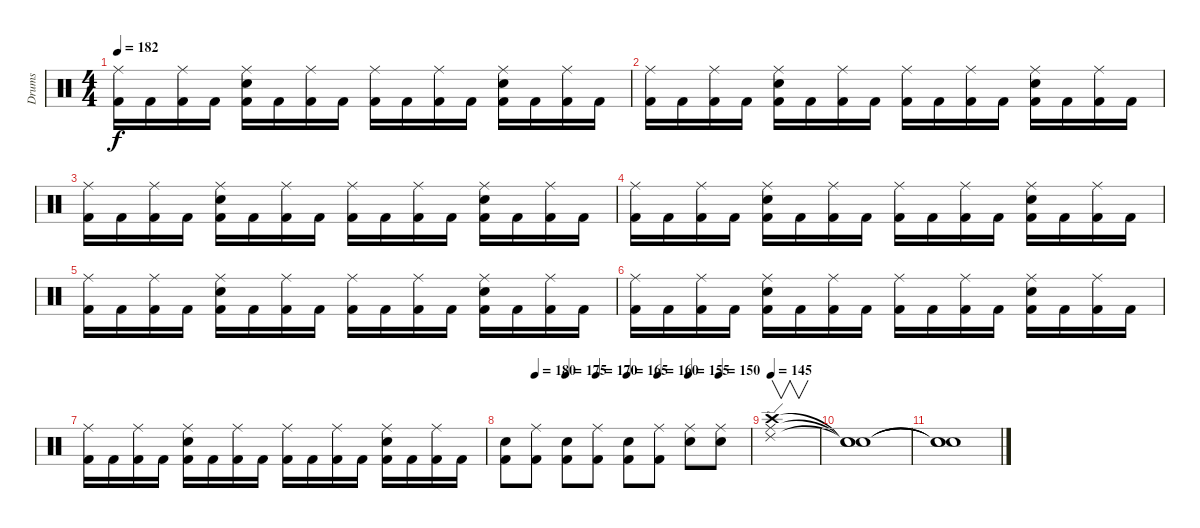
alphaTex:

\track ("Drums" "Drums") {instrument percussion}
\staff {score}
\articulation defaults
\ts (4 4)
\tempo 182
\clef neutral
\ks c
("Kick (hit) 2" "Ride (middle)").16{dy f} "Kick (hit) 2".16 ("Kick (hit) 2" "Ride (middle)").16 "Kick (hit) 2".16 ("Kick (hit) 2" "Snare (hit) 2" "Ride (middle)").16 "Kick (hit) 2".16 ("Kick (hit) 2" "Ride (middle)").16 "Kick (hit) 2".16 ("Kick (hit) 2" "Ride (middle)").16 "Kick (hit) 2".16 ("Kick (hit) 2" "Ride (middle)").16 "Kick (hit) 2".16 ("Kick (hit) 2" "Snare (hit) 2" "Ride (middle)").16 "Kick (hit) 2".16 ("Kick (hit) 2" "Ride (middle)").16 "Kick (hit) 2".16 |
("Kick (hit) 2" "Ride (middle)").16 "Kick (hit) 2".16 ("Kick (hit) 2" "Ride (middle)").16 "Kick (hit) 2".16 ("Kick (hit) 2" "Snare (hit) 2" "Ride (middle)").16 "Kick (hit) 2".16 ("Kick (hit) 2" "Ride (middle)").16 "Kick (hit) 2".16 ("Kick (hit) 2" "Ride (middle)").16 "Kick (hit) 2".16 ("Kick (hit) 2" "Ride (middle)").16 "Kick (hit) 2".16 ("Kick (hit) 2" "Snare (hit) 2" "Ride (middle)").16 "Kick (hit) 2".16 ("Kick (hit) 2" "Ride (middle)").16 "Kick (hit) 2".16 |
("Kick (hit) 2" "Ride (middle)").16 "Kick (hit) 2".16 ("Kick (hit) 2" "Ride (middle)").16 "Kick (hit) 2".16 ("Kick (hit) 2" "Snare (hit) 2" "Ride (middle)").16 "Kick (hit) 2".16 ("Kick (hit) 2" "Ride (middle)").16 "Kick (hit) 2".16 ("Kick (hit) 2" "Ride (middle)").16 "Kick (hit) 2".16 ("Kick (hit) 2" "Ride (middle)").16 "Kick (hit) 2".16 ("Kick (hit) 2" "Snare (hit) 2" "Ride (middle)").16 "Kick (hit) 2".16 ("Kick (hit) 2" "Ride (middle)").16 "Kick (hit) 2".16 |
("Kick (hit) 2" "Ride (middle)").16 "Kick (hit) 2".16 ("Kick (hit) 2" "Ride (middle)").16 "Kick (hit) 2".16 ("Kick (hit) 2" "Snare (hit) 2" "Ride (middle)").16 "Kick (hit) 2".16 ("Kick (hit) 2" "Ride (middle)").16 "Kick (hit) 2".16 ("Kick (hit) 2" "Ride (middle)").16 "Kick (hit) 2".16 ("Kick (hit) 2" "Ride (middle)").16 "Kick (hit) 2".16 ("Kick (hit) 2" "Snare (hit) 2" "Ride (middle)").16 "Kick (hit) 2".16 ("Kick (hit) 2" "Ride (middle)").16 "Kick (hit) 2".16 |
("Kick (hit) 2" "Ride (middle)").16 "Kick (hit) 2".16 ("Kick (hit) 2" "Ride (middle)").16 "Kick (hit) 2".16 ("Kick (hit) 2" "Snare (hit) 2" "Ride (middle)").16 "Kick (hit) 2".16 ("Kick (hit) 2" "Ride (middle)").16 "Kick (hit) 2".16 ("Kick (hit) 2" "Ride (middle)").16 "Kick (hit) 2".16 ("Kick (hit) 2" "Ride (middle)").16 "Kick (hit) 2".16 ("Kick (hit) 2" "Snare (hit) 2" "Ride (middle)").16 "Kick (hit) 2".16 ("Kick (hit) 2" "Ride (middle)").16 "Kick (hit) 2".16 |
("Kick (hit) 2" "Ride (middle)").16 "Kick (hit) 2".16 ("Kick (hit) 2" "Ride (middle)").16 "Kick (hit) 2".16 ("Kick (hit) 2" "Snare (hit) 2" "Ride (middle)").16 "Kick (hit) 2".16 ("Kick (hit) 2" "Ride (middle)").16 "Kick (hit) 2".16 ("Kick (hit) 2" "Ride (middle)").16 "Kick (hit) 2".16 ("Kick (hit) 2" "Ride (middle)").16 "Kick (hit) 2".16 ("Kick (hit) 2" "Snare (hit) 2" "Ride (middle)").16 "Kick (hit) 2".16 ("Kick (hit) 2" "Ride (middle)").16 "Kick (hit) 2".16 |
("Kick (hit) 2" "Ride (middle)").16 "Kick (hit) 2".16 ("Kick (hit) 2" "Ride (middle)").16 "Kick (hit) 2".16 ("Kick (hit) 2" "Snare (hit) 2" "Ride (middle)").16 "Kick (hit) 2".16 ("Kick (hit) 2" "Ride (middle)").16 "Kick (hit) 2".16 ("Kick (hit) 2" "Ride (middle)").16 "Kick (hit) 2".16 ("Kick (hit) 2" "Ride (middle)").16 "Kick (hit) 2".16 ("Kick (hit) 2" "Snare (hit) 2" "Ride (middle)").16 "Kick (hit) 2".16 ("Kick (hit) 2" "Ride (middle)").16 "Kick (hit) 2".16 |
\tempo (180 0.125)
\tempo (175 0.25)
\tempo (170 0.375)
\tempo (165 0.5)
\tempo (160 0.625)
\tempo (155 0.75)
\tempo (150 0.875)
("Kick (hit) 2" "Snare (hit) 2").8 ("Kick (hit) 2" "Ride (middle)").8 ("Kick (hit) 2" "Snare (hit) 2").8 ("Kick (hit) 2" "Ride (middle)").8 ("Kick (hit) 2" "Snare (hit) 2").8 ("Kick (hit) 2" "Ride (middle)").8 ("Snare (hit) 2" "Ride (middle)").8 ("Snare (hit) 2" "Ride (middle)").8 |
\tempo 145
("Crash high (hit)" "Ride (edge) 2" "Ride (middle)").1{v} |
("Snare (hit)"{t} "Snare (hit)"{t} "Snare (hit)"{t}).1 |
("Snare (hit)"{t} "Snare (hit)"{t} "Snare (hit)"{t}).1
